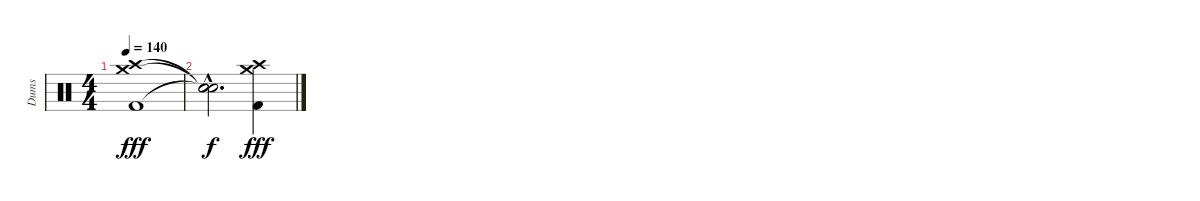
\track ("Dums" "Dums") {instrument percussion}
\staff {score}
\articulation defaults
\ts (4 4)
\tempo 140
\clef neutral
\ks c
("Crash medium (hit)" "Crash high (hit)" "Kick (hit) 2").1{dy fff} |
("Snare (hit)"{hac t} "Snare (hit)"{hac t} "Snare (hit)"{hac t}).2{d dy f} ("Crash medium (hit)" "Crash high (hit)" "Kick (hit) 2").4{dy fff}
